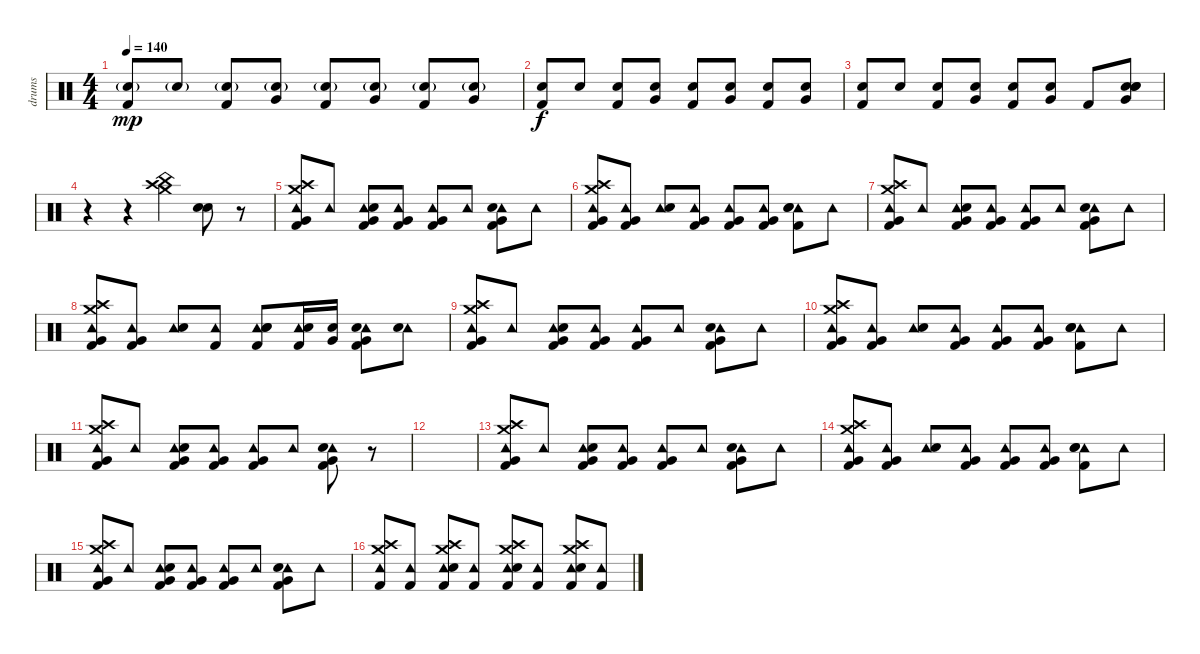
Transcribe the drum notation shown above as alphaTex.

\track ("drums" "drums") {instrument percussion}
\staff {score}
\articulation defaults
\ts (4 4)
\tempo 140
\clef neutral
\ks c
("Snare (hit) 2"{g} "Kick (hit) 2").8{dy mp} "Snare (hit) 2"{g}.8 ("Snare (hit) 2"{g} "Kick (hit) 2").8 ("Snare (hit) 2"{g} "Very Low Tom (hit)").8 ("Snare (hit) 2"{g} "Kick (hit) 2").8 ("Snare (hit) 2"{g} "Very Low Tom (hit)").8 ("Snare (hit) 2"{g} "Kick (hit) 2").8 ("Snare (hit) 2"{g} "Very Low Tom (hit)").8 |
("Snare (hit) 2" "Kick (hit) 2").8{dy f} "Snare (hit) 2".8 ("Snare (hit) 2" "Kick (hit) 2").8 ("Snare (hit) 2" "Very Low Tom (hit)").8 ("Snare (hit) 2" "Kick (hit) 2").8 ("Snare (hit) 2" "Very Low Tom (hit)").8 ("Snare (hit) 2" "Kick (hit) 2").8 ("Snare (hit) 2" "Very Low Tom (hit)").8 |
("Snare (hit) 2" "Kick (hit) 2").8 "Snare (hit) 2".8 ("Snare (hit) 2" "Kick (hit) 2").8 ("Snare (hit) 2" "Very Low Tom (hit)").8 ("Snare (hit) 2" "Kick (hit) 2").8 ("Snare (hit) 2" "Very Low Tom (hit)").8 "Kick (hit) 2".8 ("Snare (hit) 2" "Snare (hit) 2" "Snare (hit) 2" "Very Low Tom (hit)").8 |
r.4 r.4 ("Crash medium (hit)" "Crash high (hit)" "China (hit)").4 ("Snare (hit) 2" "Snare (hit) 2").8 r.8 |
("Crash high (hit)" "Tambourine (hit)" "Crash medium (hit)" "Very Low Tom (hit)" "Kick (hit) 2").8 "Tambourine (hit)".8 ("Tambourine (hit)" "Snare (hit) 2" "Very Low Tom (hit)" "Kick (hit) 2").8 ("Tambourine (hit)" "Very Low Tom (hit)" "Kick (hit) 2").8 ("Tambourine (hit)" "Very Low Tom (hit)" "Kick (hit) 2").8 "Tambourine (hit)".8 ("Tambourine (hit)" "Snare (hit) 2" "Very Low Tom (hit)" "Kick (hit) 2").8 "Tambourine (hit)".8 |
("Crash high (hit)" "Tambourine (hit)" "Crash medium (hit)" "Very Low Tom (hit)" "Kick (hit) 2").8 ("Tambourine (hit)" "Very Low Tom (hit)" "Kick (hit) 2").8 ("Tambourine (hit)" "Snare (hit) 2").8 ("Tambourine (hit)" "Very Low Tom (hit)" "Kick (hit) 2").8 ("Tambourine (hit)" "Very Low Tom (hit)" "Kick (hit) 2").8 ("Tambourine (hit)" "Very Low Tom (hit)" "Kick (hit) 2").8 ("Tambourine (hit)" "Snare (hit) 2" "Snare (hit) 2" "Kick (hit) 2").8 "Tambourine (hit)".8 |
("Crash high (hit)" "Tambourine (hit)" "Crash medium (hit)" "Very Low Tom (hit)" "Kick (hit) 2").8 "Tambourine (hit)".8 ("Tambourine (hit)" "Snare (hit) 2" "Very Low Tom (hit)" "Kick (hit) 2").8 ("Tambourine (hit)" "Very Low Tom (hit)" "Kick (hit) 2").8 ("Tambourine (hit)" "Very Low Tom (hit)" "Kick (hit) 2").8 "Tambourine (hit)".8 ("Tambourine (hit)" "Snare (hit) 2" "Very Low Tom (hit)" "Kick (hit) 2").8 "Tambourine (hit)".8 |
("Crash high (hit)" "Tambourine (hit)" "Crash medium (hit)" "Very Low Tom (hit)" "Kick (hit) 2").8 ("Tambourine (hit)" "Very Low Tom (hit)" "Kick (hit) 2").8 ("Tambourine (hit)" "Snare (hit) 2").8 ("Tambourine (hit)" "Kick (hit) 2").8 ("Tambourine (hit)" "Snare (hit) 2" "Snare (hit) 2" "Kick (hit) 2").8 ("Tambourine (hit)" "Snare (hit) 2" "Kick (hit) 2").16 ("Snare (hit) 2" "Very Low Tom (hit)").16 ("Tambourine (hit)" "Snare (hit) 2" "Very Low Tom (hit)" "Kick (hit) 2").8 ("Tambourine (hit)" "Snare (hit) 2").8 |
("Crash high (hit)" "Tambourine (hit)" "Crash medium (hit)" "Very Low Tom (hit)" "Kick (hit) 2").8 "Tambourine (hit)".8 ("Tambourine (hit)" "Snare (hit) 2" "Very Low Tom (hit)" "Kick (hit) 2").8 ("Tambourine (hit)" "Very Low Tom (hit)" "Kick (hit) 2").8 ("Tambourine (hit)" "Very Low Tom (hit)" "Kick (hit) 2").8 "Tambourine (hit)".8 ("Tambourine (hit)" "Snare (hit) 2" "Very Low Tom (hit)" "Kick (hit) 2").8 "Tambourine (hit)".8 |
("Crash high (hit)" "Tambourine (hit)" "Crash medium (hit)" "Very Low Tom (hit)" "Kick (hit) 2").8 ("Tambourine (hit)" "Very Low Tom (hit)" "Kick (hit) 2").8 ("Tambourine (hit)" "Snare (hit) 2").8 ("Tambourine (hit)" "Very Low Tom (hit)" "Kick (hit) 2").8 ("Tambourine (hit)" "Very Low Tom (hit)" "Kick (hit) 2").8 ("Tambourine (hit)" "Very Low Tom (hit)" "Kick (hit) 2").8 ("Tambourine (hit)" "Snare (hit) 2" "Snare (hit) 2" "Kick (hit) 2").8 "Tambourine (hit)".8 |
("Crash high (hit)" "Tambourine (hit)" "Crash medium (hit)" "Very Low Tom (hit)" "Kick (hit) 2").8 "Tambourine (hit)".8 ("Tambourine (hit)" "Snare (hit) 2" "Very Low Tom (hit)" "Kick (hit) 2").8 ("Tambourine (hit)" "Very Low Tom (hit)" "Kick (hit) 2").8 ("Tambourine (hit)" "Very Low Tom (hit)" "Kick (hit) 2").8 "Tambourine (hit)".8 ("Tambourine (hit)" "Snare (hit) 2" "Very Low Tom (hit)" "Kick (hit) 2").8 r.8 |
|
("Crash high (hit)" "Tambourine (hit)" "Crash medium (hit)" "Very Low Tom (hit)" "Kick (hit) 2").8 "Tambourine (hit)".8 ("Tambourine (hit)" "Snare (hit) 2" "Very Low Tom (hit)" "Kick (hit) 2").8 ("Tambourine (hit)" "Very Low Tom (hit)" "Kick (hit) 2").8 ("Tambourine (hit)" "Very Low Tom (hit)" "Kick (hit) 2").8 "Tambourine (hit)".8 ("Tambourine (hit)" "Snare (hit) 2" "Very Low Tom (hit)" "Kick (hit) 2").8 "Tambourine (hit)".8 |
("Crash high (hit)" "Tambourine (hit)" "Crash medium (hit)" "Very Low Tom (hit)" "Kick (hit) 2").8 ("Tambourine (hit)" "Very Low Tom (hit)" "Kick (hit) 2").8 ("Tambourine (hit)" "Snare (hit) 2").8 ("Tambourine (hit)" "Very Low Tom (hit)" "Kick (hit) 2").8 ("Tambourine (hit)" "Very Low Tom (hit)" "Kick (hit) 2").8 ("Tambourine (hit)" "Very Low Tom (hit)" "Kick (hit) 2").8 ("Tambourine (hit)" "Snare (hit) 2" "Snare (hit) 2" "Kick (hit) 2").8 "Tambourine (hit)".8 |
("Crash high (hit)" "Tambourine (hit)" "Crash medium (hit)" "Very Low Tom (hit)" "Kick (hit) 2").8 "Tambourine (hit)".8 ("Tambourine (hit)" "Snare (hit) 2" "Very Low Tom (hit)" "Kick (hit) 2").8 ("Tambourine (hit)" "Very Low Tom (hit)" "Kick (hit) 2").8 ("Tambourine (hit)" "Very Low Tom (hit)" "Kick (hit) 2").8 "Tambourine (hit)".8 ("Tambourine (hit)" "Snare (hit) 2" "Very Low Tom (hit)" "Kick (hit) 2").8 "Tambourine (hit)".8 |
("Crash high (hit)" "Tambourine (hit)" "Crash medium (hit)" "Kick (hit) 2").8 ("Tambourine (hit)" "Kick (hit) 2").8 ("Crash high (hit)" "Tambourine (hit)" "Crash medium (hit)" "Snare (hit) 2" "Kick (hit) 2").8 ("Tambourine (hit)" "Kick (hit) 2").8 ("Crash high (hit)" "Tambourine (hit)" "Crash medium (hit)" "Snare (hit) 2" "Kick (hit) 2").8 ("Tambourine (hit)" "Kick (hit) 2").8 ("Crash high (hit)" "Tambourine (hit)" "Crash medium (hit)" "Snare (hit) 2" "Kick (hit) 2").8 ("Tambourine (hit)" "Kick (hit) 2").8
